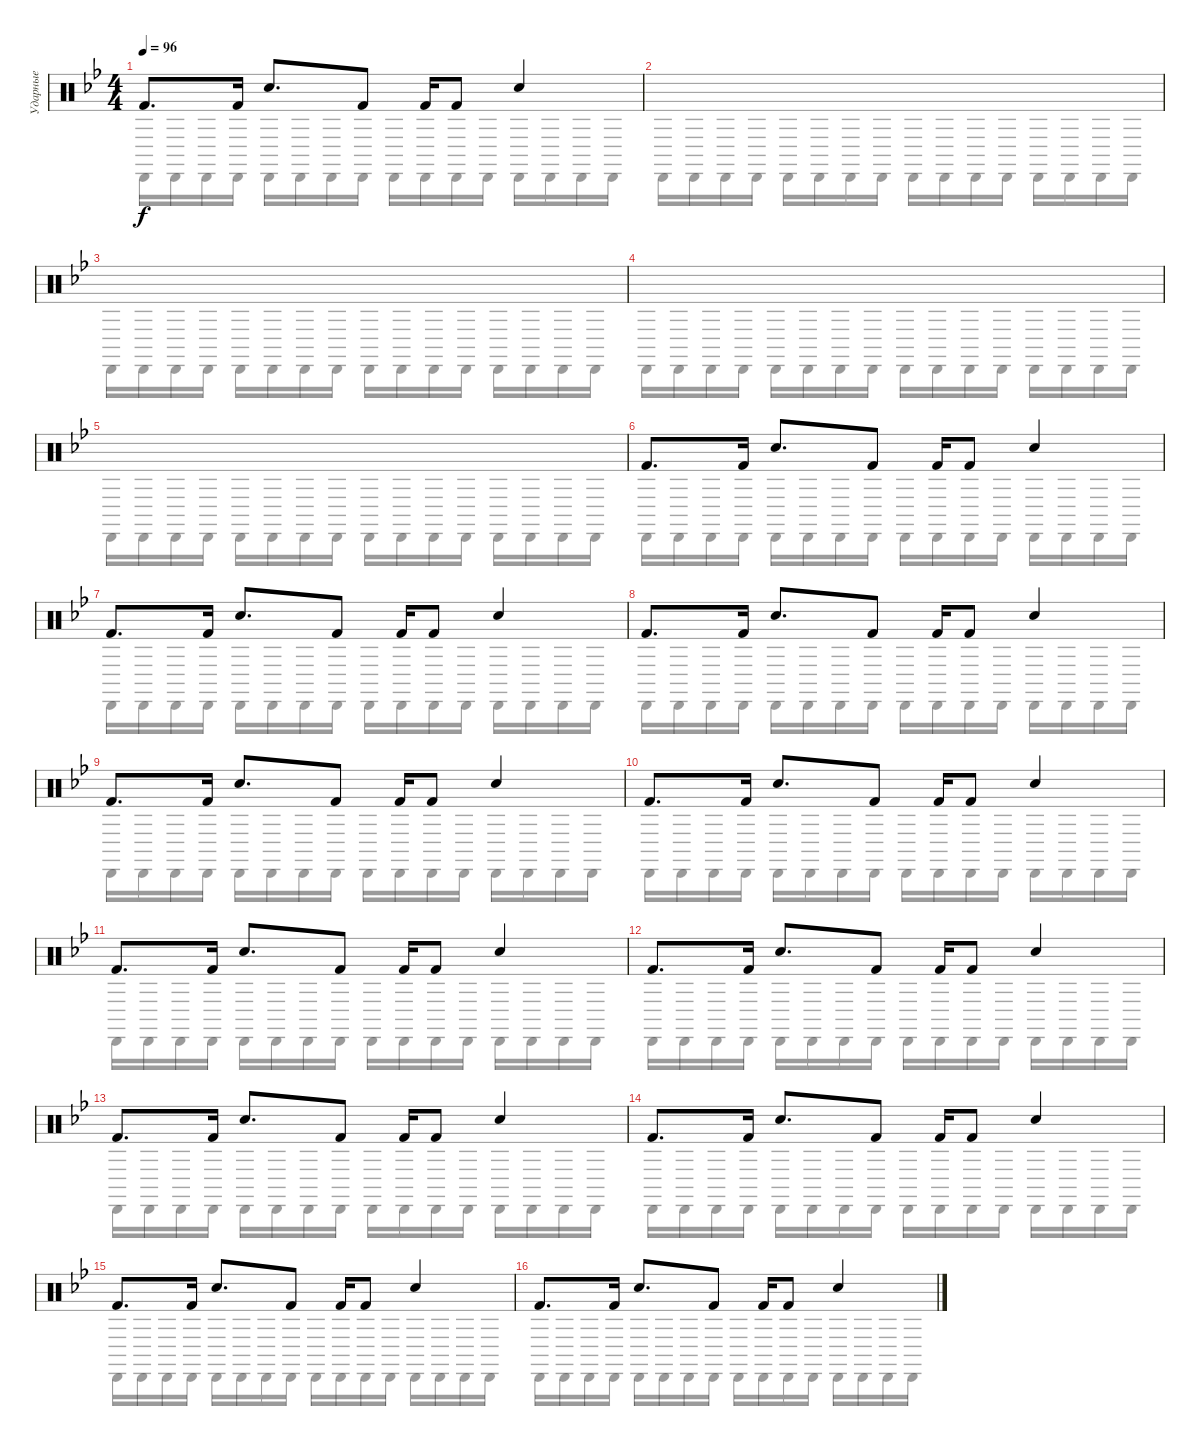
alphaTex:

\track ("Ударные" "Ударные") {instrument percussion}
\staff {score}
\articulation defaults
\voice
\ts (4 4)
\tempo 96
\clef neutral
\ks bb "Kick (hit) 2".8{d dy f} "Kick (hit) 2".16 "Hand Clap (hit)".8{d} "Kick (hit) 2".8 "Kick (hit) 2".16 "Kick (hit) 2".8 "Hand Clap (hit)".4
|
|
|
|
|
"Kick (hit) 2".8{d volume 16} "Kick (hit) 2".16 "Hand Clap (hit)".8{d} "Kick (hit) 2".8 "Kick (hit) 2".16 "Kick (hit) 2".8 "Hand Clap (hit)".4 |
"Kick (hit) 2".8{d} "Kick (hit) 2".16 "Hand Clap (hit)".8{d} "Kick (hit) 2".8 "Kick (hit) 2".16 "Kick (hit) 2".8 "Hand Clap (hit)".4 |
"Kick (hit) 2".8{d} "Kick (hit) 2".16 "Hand Clap (hit)".8{d} "Kick (hit) 2".8 "Kick (hit) 2".16 "Kick (hit) 2".8 "Hand Clap (hit)".4 |
"Kick (hit) 2".8{d} "Kick (hit) 2".16 "Hand Clap (hit)".8{d} "Kick (hit) 2".8 "Kick (hit) 2".16 "Kick (hit) 2".8 "Hand Clap (hit)".4 |
"Kick (hit) 2".8{d} "Kick (hit) 2".16 "Hand Clap (hit)".8{d} "Kick (hit) 2".8 "Kick (hit) 2".16 "Kick (hit) 2".8 "Hand Clap (hit)".4 |
"Kick (hit) 2".8{d} "Kick (hit) 2".16 "Hand Clap (hit)".8{d} "Kick (hit) 2".8 "Kick (hit) 2".16 "Kick (hit) 2".8 "Hand Clap (hit)".4 |
"Kick (hit) 2".8{d} "Kick (hit) 2".16 "Hand Clap (hit)".8{d} "Kick (hit) 2".8 "Kick (hit) 2".16 "Kick (hit) 2".8 "Hand Clap (hit)".4 |
"Kick (hit) 2".8{d} "Kick (hit) 2".16 "Hand Clap (hit)".8{d} "Kick (hit) 2".8 "Kick (hit) 2".16 "Kick (hit) 2".8 "Hand Clap (hit)".4 |
"Kick (hit) 2".8{d} "Kick (hit) 2".16 "Hand Clap (hit)".8{d} "Kick (hit) 2".8 "Kick (hit) 2".16 "Kick (hit) 2".8 "Hand Clap (hit)".4 |
"Kick (hit) 2".8{d} "Kick (hit) 2".16 "Hand Clap (hit)".8{d} "Kick (hit) 2".8 "Kick (hit) 2".16 "Kick (hit) 2".8 "Hand Clap (hit)".4 |
"Kick (hit) 2".8{d} "Kick (hit) 2".16 "Hand Clap (hit)".8{d} "Kick (hit) 2".8 "Kick (hit) 2".16 "Kick (hit) 2".8 "Hand Clap (hit)".4
\voice
\clef neutral
\ottava regular
\simile none
\ks bb "Cabasa (hit)".16{dy f} "Cabasa (hit)".16 "Cabasa (hit)".16 "Cabasa (hit)".16 "Cabasa (hit)".16 "Cabasa (hit)".16 "Cabasa (hit)".16 "Cabasa (hit)".16 "Cabasa (hit)".16 "Cabasa (hit)".16 "Cabasa (hit)".16 "Cabasa (hit)".16 "Cabasa (hit)".16 "Cabasa (hit)".16 "Cabasa (hit)".16 "Cabasa (hit)".16
|
"Cabasa (hit)".16 "Cabasa (hit)".16 "Cabasa (hit)".16 "Cabasa (hit)".16 "Cabasa (hit)".16 "Cabasa (hit)".16 "Cabasa (hit)".16 "Cabasa (hit)".16 "Cabasa (hit)".16 "Cabasa (hit)".16 "Cabasa (hit)".16 "Cabasa (hit)".16 "Cabasa (hit)".16 "Cabasa (hit)".16 "Cabasa (hit)".16 "Cabasa (hit)".16 |
"Cabasa (hit)".16 "Cabasa (hit)".16 "Cabasa (hit)".16 "Cabasa (hit)".16 "Cabasa (hit)".16 "Cabasa (hit)".16 "Cabasa (hit)".16 "Cabasa (hit)".16 "Cabasa (hit)".16 "Cabasa (hit)".16 "Cabasa (hit)".16 "Cabasa (hit)".16 "Cabasa (hit)".16 "Cabasa (hit)".16 "Cabasa (hit)".16 "Cabasa (hit)".16 |
"Cabasa (hit)".16 "Cabasa (hit)".16 "Cabasa (hit)".16 "Cabasa (hit)".16 "Cabasa (hit)".16 "Cabasa (hit)".16 "Cabasa (hit)".16 "Cabasa (hit)".16 "Cabasa (hit)".16 "Cabasa (hit)".16 "Cabasa (hit)".16 "Cabasa (hit)".16 "Cabasa (hit)".16 "Cabasa (hit)".16 "Cabasa (hit)".16 "Cabasa (hit)".16 |
"Cabasa (hit)".16 "Cabasa (hit)".16 "Cabasa (hit)".16 "Cabasa (hit)".16 "Cabasa (hit)".16 "Cabasa (hit)".16 "Cabasa (hit)".16 "Cabasa (hit)".16 "Cabasa (hit)".16 "Cabasa (hit)".16 "Cabasa (hit)".16 "Cabasa (hit)".16 "Cabasa (hit)".16 "Cabasa (hit)".16 "Cabasa (hit)".16 "Cabasa (hit)".16 |
"Cabasa (hit)".16 "Cabasa (hit)".16 "Cabasa (hit)".16 "Cabasa (hit)".16 "Cabasa (hit)".16 "Cabasa (hit)".16 "Cabasa (hit)".16 "Cabasa (hit)".16 "Cabasa (hit)".16 "Cabasa (hit)".16 "Cabasa (hit)".16 "Cabasa (hit)".16 "Cabasa (hit)".16 "Cabasa (hit)".16 "Cabasa (hit)".16 "Cabasa (hit)".16 |
"Cabasa (hit)".16 "Cabasa (hit)".16 "Cabasa (hit)".16 "Cabasa (hit)".16 "Cabasa (hit)".16 "Cabasa (hit)".16 "Cabasa (hit)".16 "Cabasa (hit)".16 "Cabasa (hit)".16 "Cabasa (hit)".16 "Cabasa (hit)".16 "Cabasa (hit)".16 "Cabasa (hit)".16 "Cabasa (hit)".16 "Cabasa (hit)".16 "Cabasa (hit)".16 |
"Cabasa (hit)".16 "Cabasa (hit)".16 "Cabasa (hit)".16 "Cabasa (hit)".16 "Cabasa (hit)".16 "Cabasa (hit)".16 "Cabasa (hit)".16 "Cabasa (hit)".16 "Cabasa (hit)".16 "Cabasa (hit)".16 "Cabasa (hit)".16 "Cabasa (hit)".16 "Cabasa (hit)".16 "Cabasa (hit)".16 "Cabasa (hit)".16 "Cabasa (hit)".16 |
"Cabasa (hit)".16 "Cabasa (hit)".16 "Cabasa (hit)".16 "Cabasa (hit)".16 "Cabasa (hit)".16 "Cabasa (hit)".16 "Cabasa (hit)".16 "Cabasa (hit)".16 "Cabasa (hit)".16 "Cabasa (hit)".16 "Cabasa (hit)".16 "Cabasa (hit)".16 "Cabasa (hit)".16 "Cabasa (hit)".16 "Cabasa (hit)".16 "Cabasa (hit)".16 |
"Cabasa (hit)".16 "Cabasa (hit)".16 "Cabasa (hit)".16 "Cabasa (hit)".16 "Cabasa (hit)".16 "Cabasa (hit)".16 "Cabasa (hit)".16 "Cabasa (hit)".16 "Cabasa (hit)".16 "Cabasa (hit)".16 "Cabasa (hit)".16 "Cabasa (hit)".16 "Cabasa (hit)".16 "Cabasa (hit)".16 "Cabasa (hit)".16 "Cabasa (hit)".16 |
"Cabasa (hit)".16 "Cabasa (hit)".16 "Cabasa (hit)".16 "Cabasa (hit)".16 "Cabasa (hit)".16 "Cabasa (hit)".16 "Cabasa (hit)".16 "Cabasa (hit)".16 "Cabasa (hit)".16 "Cabasa (hit)".16 "Cabasa (hit)".16 "Cabasa (hit)".16 "Cabasa (hit)".16 "Cabasa (hit)".16 "Cabasa (hit)".16 "Cabasa (hit)".16 |
"Cabasa (hit)".16 "Cabasa (hit)".16 "Cabasa (hit)".16 "Cabasa (hit)".16 "Cabasa (hit)".16 "Cabasa (hit)".16 "Cabasa (hit)".16 "Cabasa (hit)".16 "Cabasa (hit)".16 "Cabasa (hit)".16 "Cabasa (hit)".16 "Cabasa (hit)".16 "Cabasa (hit)".16 "Cabasa (hit)".16 "Cabasa (hit)".16 "Cabasa (hit)".16 |
"Cabasa (hit)".16 "Cabasa (hit)".16 "Cabasa (hit)".16 "Cabasa (hit)".16 "Cabasa (hit)".16 "Cabasa (hit)".16 "Cabasa (hit)".16 "Cabasa (hit)".16 "Cabasa (hit)".16 "Cabasa (hit)".16 "Cabasa (hit)".16 "Cabasa (hit)".16 "Cabasa (hit)".16 "Cabasa (hit)".16 "Cabasa (hit)".16 "Cabasa (hit)".16 |
"Cabasa (hit)".16 "Cabasa (hit)".16 "Cabasa (hit)".16 "Cabasa (hit)".16 "Cabasa (hit)".16 "Cabasa (hit)".16 "Cabasa (hit)".16 "Cabasa (hit)".16 "Cabasa (hit)".16 "Cabasa (hit)".16 "Cabasa (hit)".16 "Cabasa (hit)".16 "Cabasa (hit)".16 "Cabasa (hit)".16 "Cabasa (hit)".16 "Cabasa (hit)".16 |
"Cabasa (hit)".16 "Cabasa (hit)".16 "Cabasa (hit)".16 "Cabasa (hit)".16 "Cabasa (hit)".16 "Cabasa (hit)".16 "Cabasa (hit)".16 "Cabasa (hit)".16 "Cabasa (hit)".16 "Cabasa (hit)".16 "Cabasa (hit)".16 "Cabasa (hit)".16 "Cabasa (hit)".16 "Cabasa (hit)".16 "Cabasa (hit)".16 "Cabasa (hit)".16 |
"Cabasa (hit)".16 "Cabasa (hit)".16 "Cabasa (hit)".16 "Cabasa (hit)".16 "Cabasa (hit)".16 "Cabasa (hit)".16 "Cabasa (hit)".16 "Cabasa (hit)".16 "Cabasa (hit)".16 "Cabasa (hit)".16 "Cabasa (hit)".16 "Cabasa (hit)".16 "Cabasa (hit)".16 "Cabasa (hit)".16 "Cabasa (hit)".16 "Cabasa (hit)".16
